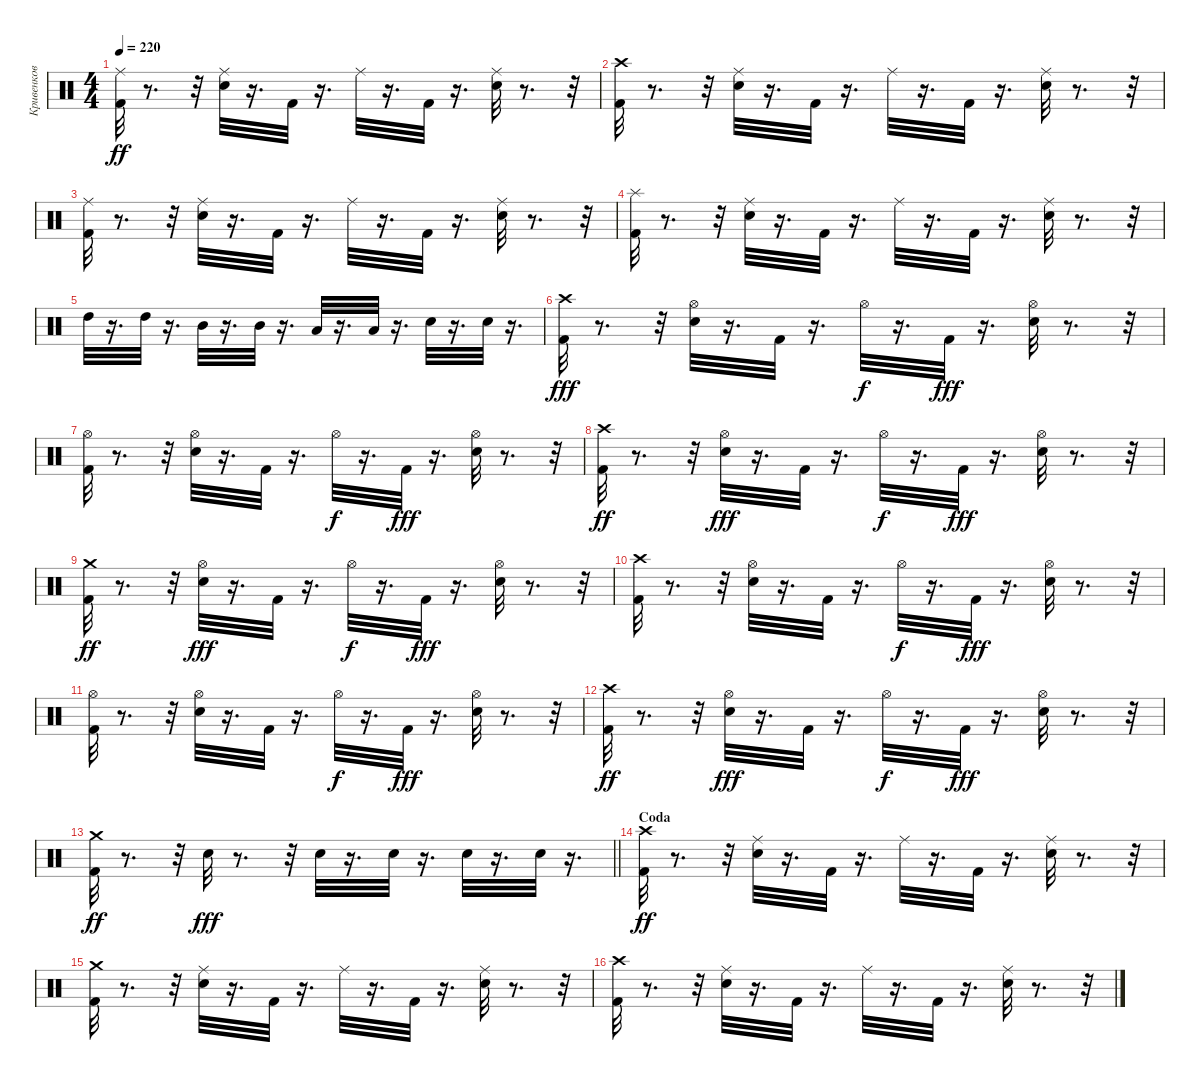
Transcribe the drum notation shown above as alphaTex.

\track ("Кривенков" "Кривенков") {instrument percussion}
\staff {score}
\articulation defaults
\ts (4 4)
\tempo 220
\clef neutral
\ks c
("Kick (hit) 2" "Ride (middle)").32{dy ff} r.8{d} r.32 ("Electric Snare (hit)" "Ride (middle)").32 r.16{d} "Kick (hit) 2".32 r.16{d} "Ride (middle)".32 r.16{d} "Kick (hit) 2".32 r.16{d} ("Electric Snare (hit)" "Ride (middle)").32 r.8{d} r.32 |
("Crash high (hit)" "Kick (hit) 2").32 r.8{d} r.32 ("Ride (middle)" "Electric Snare (hit)").32 r.16{d} "Kick (hit) 2".32 r.16{d} "Ride (middle)".32 r.16{d} "Kick (hit) 2".32 r.16{d} ("Ride (middle)" "Electric Snare (hit)").32 r.8{d} r.32 |
("Kick (hit) 2" "Ride (middle)").32 r.8{d} r.32 ("Electric Snare (hit)" "Ride (middle)").32 r.16{d} "Kick (hit) 2".32 r.16{d} "Ride (middle)".32 r.16{d} "Kick (hit) 2".32 r.16{d} ("Electric Snare (hit)" "Ride (middle)").32 r.8{d} r.32 |
("Splash (hit)" "Kick (hit) 2").32 r.8{d} r.32 ("Ride (middle)" "Electric Snare (hit)").32 r.16{d} "Kick (hit) 2".32 r.16{d} "Ride (middle)".32 r.16{d} "Kick (hit) 2".32 r.16{d} ("Ride (middle)" "Electric Snare (hit)").32 r.8{d} r.32 |
"High Tom (hit)".32 r.16{d} "High Tom (hit)".32 r.16{d} "Mid Tom (hit)".32 r.16{d} "Mid Tom (hit)".32 r.16{d} "Low Tom (hit)".32 r.16{d} "Low Tom (hit)".32 r.16{d} "Snare (hit) 2".32 r.16{d} "Snare (hit) 2".32 r.16{d} |
("Crash high (hit)" "Kick (hit) 2").32{dy fff} r.8{d} r.32 ("Hi-Hat (open)" "Electric Snare (hit)").32 r.16{d} "Kick (hit) 2".32 r.16{d} "Hi-Hat (open)".32{dy f} r.16{d} "Kick (hit) 2".32{dy fff} r.16{d} ("Hi-Hat (open)" "Electric Snare (hit)").32 r.8{d} r.32 |
("Hi-Hat (open)" "Kick (hit) 2").32 r.8{d} r.32 ("Hi-Hat (open)" "Electric Snare (hit)").32 r.16{d} "Kick (hit) 2".32 r.16{d} "Hi-Hat (open)".32{dy f} r.16{d} "Kick (hit) 2".32{dy fff} r.16{d} ("Hi-Hat (open)" "Electric Snare (hit)").32 r.8{d} r.32 |
("Kick (hit) 2" "Crash high (hit)").32{dy ff} r.8{d} r.32 ("Electric Snare (hit)" "Hi-Hat (open)").32{dy fff} r.16{d} "Kick (hit) 2".32 r.16{d} "Hi-Hat (open)".32{dy f} r.16{d} "Kick (hit) 2".32{dy fff} r.16{d} ("Electric Snare (hit)" "Hi-Hat (open)").32 r.8{d} r.32 |
("Kick (hit) 2" "Crash medium (hit)").32{dy ff} r.8{d} r.32 ("Electric Snare (hit)" "Hi-Hat (open)").32{dy fff} r.16{d} "Kick (hit) 2".32 r.16{d} "Hi-Hat (open)".32{dy f} r.16{d} "Kick (hit) 2".32{dy fff} r.16{d} ("Electric Snare (hit)" "Hi-Hat (open)").32 r.8{d} r.32 |
("Crash high (hit)" "Kick (hit) 2").32 r.8{d} r.32 ("Hi-Hat (open)" "Electric Snare (hit)").32 r.16{d} "Kick (hit) 2".32 r.16{d} "Hi-Hat (open)".32{dy f} r.16{d} "Kick (hit) 2".32{dy fff} r.16{d} ("Hi-Hat (open)" "Electric Snare (hit)").32 r.8{d} r.32 |
("Hi-Hat (open)" "Kick (hit) 2").32 r.8{d} r.32 ("Hi-Hat (open)" "Electric Snare (hit)").32 r.16{d} "Kick (hit) 2".32 r.16{d} "Hi-Hat (open)".32{dy f} r.16{d} "Kick (hit) 2".32{dy fff} r.16{d} ("Hi-Hat (open)" "Electric Snare (hit)").32 r.8{d} r.32 |
("Kick (hit) 2" "Crash high (hit)").32{dy ff} r.8{d} r.32 ("Electric Snare (hit)" "Hi-Hat (open)").32{dy fff} r.16{d} "Kick (hit) 2".32 r.16{d} "Hi-Hat (open)".32{dy f} r.16{d} "Kick (hit) 2".32{dy fff} r.16{d} ("Electric Snare (hit)" "Hi-Hat (open)").32 r.8{d} r.32 |
\barLineRight lightlight
("Kick (hit) 2" "Crash medium (hit)").32{dy ff} r.8{d} r.32 "Electric Snare (hit)".32{dy fff} r.8{d} r.32 "Electric Snare (hit)".32 r.16{d} "Electric Snare (hit)".32 r.16{d} "Electric Snare (hit)".32 r.16{d} "Electric Snare (hit)".32 r.16{d} |
\section ("" "Coda")
("Kick (hit) 2" "Crash high (hit)").32{dy ff} r.8{d} r.32 ("Ride (middle)" "Electric Snare (hit)").32 r.16{d} "Kick (hit) 2".32 r.16{d} "Ride (middle)".32 r.16{d} "Kick (hit) 2".32 r.16{d} ("Ride (middle)" "Electric Snare (hit)").32 r.8{d} r.32 |
("Crash medium (hit)" "Kick (hit) 2").32 r.8{d} r.32 ("Electric Snare (hit)" "Ride (middle)").32 r.16{d} "Kick (hit) 2".32 r.16{d} "Ride (middle)".32 r.16{d} "Kick (hit) 2".32 r.16{d} ("Electric Snare (hit)" "Ride (middle)").32 r.8{d} r.32 |
("Kick (hit) 2" "Crash high (hit)").32 r.8{d} r.32 ("Electric Snare (hit)" "Ride (middle)").32 r.16{d} "Kick (hit) 2".32 r.16{d} "Ride (middle)".32 r.16{d} "Kick (hit) 2".32 r.16{d} ("Electric Snare (hit)" "Ride (middle)").32 r.8{d} r.32
